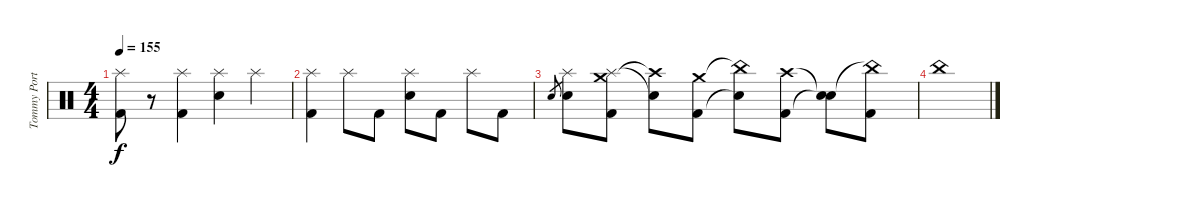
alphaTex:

\track ("Tommy Portino" "Tommy Port") {instrument percussion}
\staff {score}
\articulation defaults
\ts (4 4)
\tempo 155
\clef neutral
\ks c
("Splash (hit)" "Kick (hit) 2").8{dy f} r.8 ("Splash (hit)" "Kick (hit) 2").4 ("Splash (hit)" "Electric Snare (hit)").4 "Splash (hit)".4 |
("Splash (hit)" "Kick (hit) 2").4 "Splash (hit)".8 "Kick (hit) 2".8 ("Splash (hit)" "Electric Snare (hit)").8 "Kick (hit) 2".8 "Splash (hit)".8 "Kick (hit) 2".8 |
"Electric Snare (hit)".8{gr} ("Splash (hit)" "Electric Snare (hit)").8 ("Crash medium (hit)" "Splash (hit)" "Kick (hit) 2").8 ("Crash high (hit)"{t} "Snare (hit)"{t}).8 ("Crash medium (hit)" "Kick (hit) 2").8 ("China (hit)"{t} "Snare (hit)"{t}).8 ("Crash high (hit)" "Kick (hit) 2").8 ("Snare (hit)"{t} "Snare (hit)"{t}).8 ("China (hit)"{t} "Kick (hit) 2").8 |
"China (hit)".1
